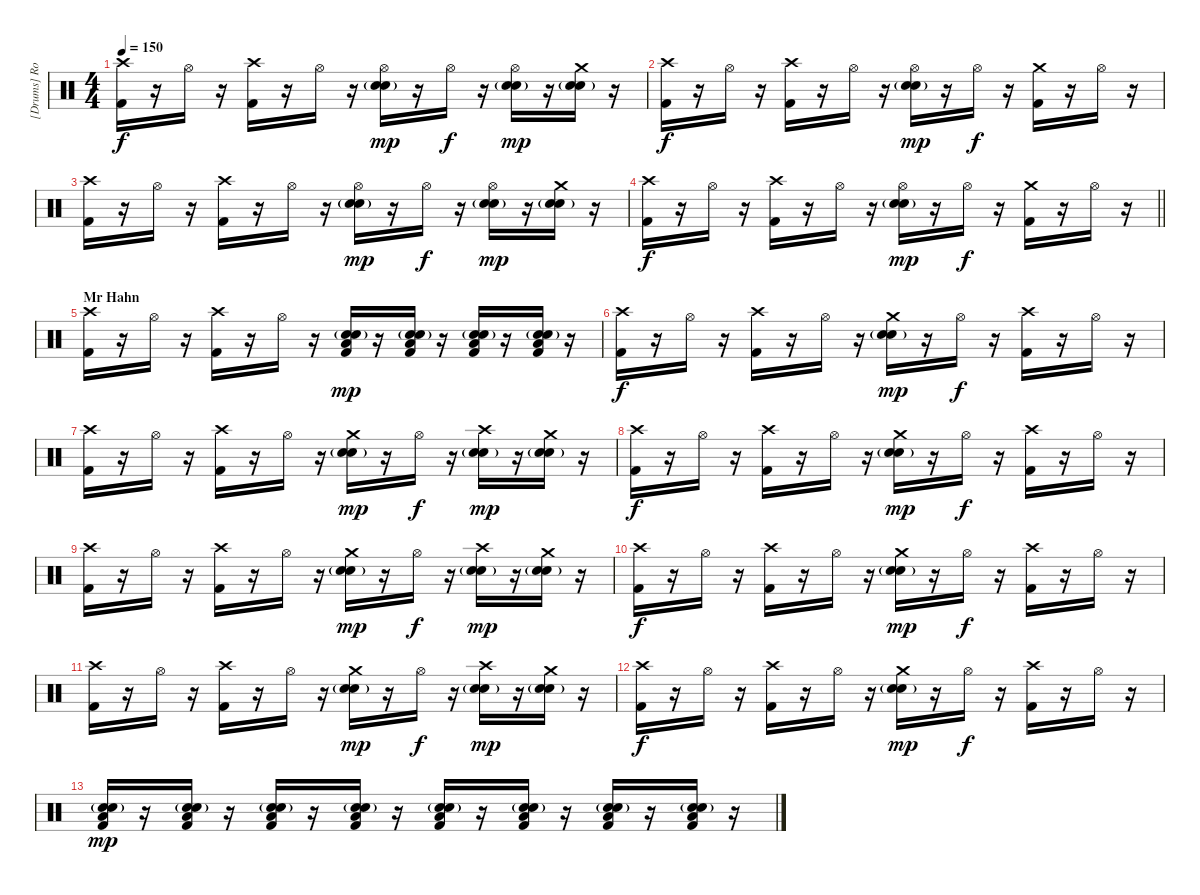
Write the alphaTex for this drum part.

\track ("[Drums] Rob Bourdon" "[Drums] Ro") {instrument percussion}
\staff {score}
\articulation defaults
\ts (4 4)
\tempo 150
\clef neutral
\ks c
("Crash high (hit)" "Kick (hit) 2").16{dy f} r.16 "Hi-Hat (open)".16 r.16 ("Crash high (hit)" "Kick (hit) 2").16 r.16 "Hi-Hat (open)".16 r.16 ("Hi-Hat (open)" "Snare (hit) 2"{g} "Snare (hit) 2").16{dy mp} r.16 "Hi-Hat (open)".16{dy f} r.16 ("Hi-Hat (open)" "Snare (hit) 2"{g} "Snare (hit) 2").16{dy mp} r.16 ("Crash medium (hit)" "Snare (hit) 2"{g} "Snare (hit) 2").16 r.16 |
("Crash high (hit)" "Kick (hit) 2").16{dy f} r.16 "Hi-Hat (open)".16 r.16 ("Crash high (hit)" "Kick (hit) 2").16 r.16 "Hi-Hat (open)".16 r.16 ("Hi-Hat (open)" "Snare (hit) 2"{g} "Snare (hit) 2").16{dy mp} r.16 "Hi-Hat (open)".16{dy f} r.16 ("Crash medium (hit)" "Kick (hit) 2").16 r.16 "Hi-Hat (open)".16 r.16 |
("Crash high (hit)" "Kick (hit) 2").16 r.16 "Hi-Hat (open)".16 r.16 ("Crash high (hit)" "Kick (hit) 2").16 r.16 "Hi-Hat (open)".16 r.16 ("Hi-Hat (open)" "Snare (hit) 2"{g} "Snare (hit) 2").16{dy mp} r.16 "Hi-Hat (open)".16{dy f} r.16 ("Hi-Hat (open)" "Snare (hit) 2"{g} "Snare (hit) 2").16{dy mp} r.16 ("Crash medium (hit)" "Snare (hit) 2"{g} "Snare (hit) 2").16 r.16 |
\barLineRight lightlight
("Crash high (hit)" "Kick (hit) 2").16{dy f} r.16 "Hi-Hat (open)".16 r.16 ("Crash high (hit)" "Kick (hit) 2").16 r.16 "Hi-Hat (open)".16 r.16 ("Hi-Hat (open)" "Snare (hit) 2"{g} "Snare (hit) 2").16{dy mp} r.16 "Hi-Hat (open)".16{dy f} r.16 ("Crash medium (hit)" "Kick (hit) 2").16 r.16 "Hi-Hat (open)".16 r.16 |
\section ("" "Mr Hahn")
("Crash high (hit)" "Kick (hit) 2").16 r.16 "Hi-Hat (open)".16 r.16 ("Crash high (hit)" "Kick (hit) 2").16 r.16 "Hi-Hat (open)".16 r.16 ("Low Tom (hit)" "Snare (hit) 2"{g} "Snare (hit) 2" "Kick (hit) 2").16{dy mp} r.16 ("Low Tom (hit)" "Snare (hit) 2"{g} "Snare (hit) 2" "Kick (hit) 2").16 r.16 ("Low Tom (hit)" "Snare (hit) 2"{g} "Snare (hit) 2" "Kick (hit) 2").16 r.16 ("Low Tom (hit)" "Snare (hit) 2"{g} "Snare (hit) 2" "Kick (hit) 2").16 r.16 |
("Crash high (hit)" "Kick (hit) 2").16{dy f} r.16 "Hi-Hat (open)".16 r.16 ("Crash high (hit)" "Kick (hit) 2").16 r.16 "Hi-Hat (open)".16 r.16 ("Crash medium (hit)" "Snare (hit) 2"{g} "Snare (hit) 2").16{dy mp} r.16 "Hi-Hat (open)".16{dy f} r.16 ("Crash high (hit)" "Kick (hit) 2").16 r.16 "Hi-Hat (open)".16 r.16 |
("Crash high (hit)" "Kick (hit) 2").16 r.16 "Hi-Hat (open)".16 r.16 ("Crash high (hit)" "Kick (hit) 2").16 r.16 "Hi-Hat (open)".16 r.16 ("Crash medium (hit)" "Snare (hit) 2"{g} "Snare (hit) 2").16{dy mp} r.16 "Hi-Hat (open)".16{dy f} r.16 ("Crash high (hit)" "Snare (hit) 2"{g} "Snare (hit) 2").16{dy mp} r.16 ("Crash medium (hit)" "Snare (hit) 2"{g} "Snare (hit) 2").16 r.16 |
("Crash high (hit)" "Kick (hit) 2").16{dy f} r.16 "Hi-Hat (open)".16 r.16 ("Crash high (hit)" "Kick (hit) 2").16 r.16 "Hi-Hat (open)".16 r.16 ("Crash medium (hit)" "Snare (hit) 2"{g} "Snare (hit) 2").16{dy mp} r.16 "Hi-Hat (open)".16{dy f} r.16 ("Crash high (hit)" "Kick (hit) 2").16 r.16 "Hi-Hat (open)".16 r.16 |
("Crash high (hit)" "Kick (hit) 2").16 r.16 "Hi-Hat (open)".16 r.16 ("Crash high (hit)" "Kick (hit) 2").16 r.16 "Hi-Hat (open)".16 r.16 ("Crash medium (hit)" "Snare (hit) 2"{g} "Snare (hit) 2").16{dy mp} r.16 "Hi-Hat (open)".16{dy f} r.16 ("Crash high (hit)" "Snare (hit) 2"{g} "Snare (hit) 2").16{dy mp} r.16 ("Crash medium (hit)" "Snare (hit) 2"{g} "Snare (hit) 2").16 r.16 |
("Crash high (hit)" "Kick (hit) 2").16{dy f} r.16 "Hi-Hat (open)".16 r.16 ("Crash high (hit)" "Kick (hit) 2").16 r.16 "Hi-Hat (open)".16 r.16 ("Crash medium (hit)" "Snare (hit) 2"{g} "Snare (hit) 2").16{dy mp} r.16 "Hi-Hat (open)".16{dy f} r.16 ("Crash high (hit)" "Kick (hit) 2").16 r.16 "Hi-Hat (open)".16 r.16 |
("Crash high (hit)" "Kick (hit) 2").16 r.16 "Hi-Hat (open)".16 r.16 ("Crash high (hit)" "Kick (hit) 2").16 r.16 "Hi-Hat (open)".16 r.16 ("Crash medium (hit)" "Snare (hit) 2"{g} "Snare (hit) 2").16{dy mp} r.16 "Hi-Hat (open)".16{dy f} r.16 ("Crash high (hit)" "Snare (hit) 2"{g} "Snare (hit) 2").16{dy mp} r.16 ("Crash medium (hit)" "Snare (hit) 2"{g} "Snare (hit) 2").16 r.16 |
("Crash high (hit)" "Kick (hit) 2").16{dy f} r.16 "Hi-Hat (open)".16 r.16 ("Crash high (hit)" "Kick (hit) 2").16 r.16 "Hi-Hat (open)".16 r.16 ("Crash medium (hit)" "Snare (hit) 2"{g} "Snare (hit) 2").16{dy mp} r.16 "Hi-Hat (open)".16{dy f} r.16 ("Crash high (hit)" "Kick (hit) 2").16 r.16 "Hi-Hat (open)".16 r.16 |
("Low Tom (hit)" "Snare (hit) 2"{g} "Snare (hit) 2" "Kick (hit) 2").16{dy mp} r.16 ("Low Tom (hit)" "Snare (hit) 2"{g} "Snare (hit) 2" "Kick (hit) 2").16 r.16 ("Low Tom (hit)" "Snare (hit) 2"{g} "Snare (hit) 2" "Kick (hit) 2").16 r.16 ("Low Tom (hit)" "Snare (hit) 2"{g} "Snare (hit) 2" "Kick (hit) 2").16 r.16 ("Low Tom (hit)" "Snare (hit) 2"{g} "Snare (hit) 2" "Kick (hit) 2").16 r.16 ("Low Tom (hit)" "Snare (hit) 2"{g} "Snare (hit) 2" "Kick (hit) 2").16 r.16 ("Low Tom (hit)" "Snare (hit) 2"{g} "Snare (hit) 2" "Kick (hit) 2").16 r.16 ("Low Tom (hit)" "Snare (hit) 2"{g} "Snare (hit) 2" "Kick (hit) 2").16 r.16
